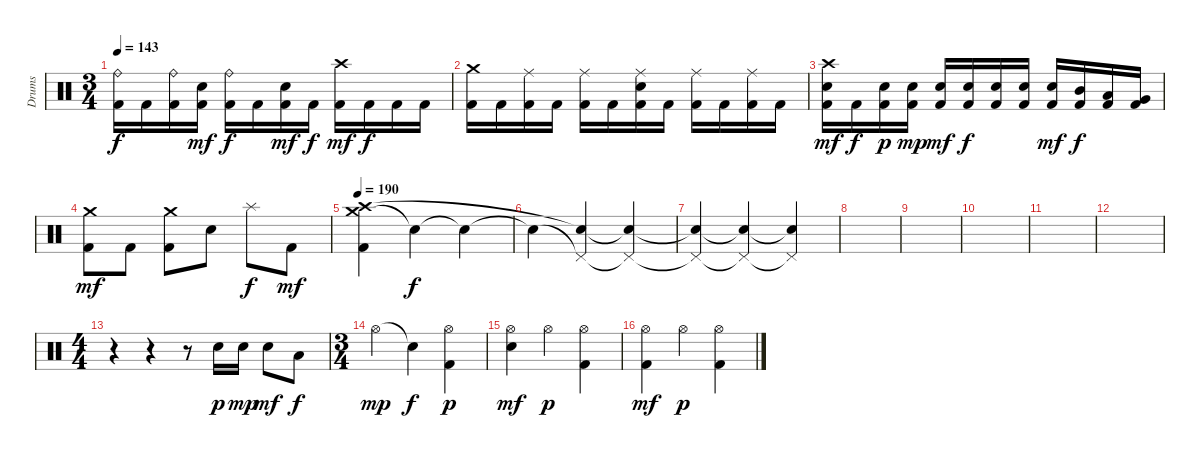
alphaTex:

\track ("Drums" "Drums") {instrument percussion}
\staff {score}
\articulation defaults
\ts (3 4)
\tempo 143
\clef neutral
\ks c
("Ride (bell)" "Kick (hit) 2").16{dy f} "Kick (hit) 2".16 ("Ride (bell)" "Kick (hit) 2").16 ("Electric Snare (hit)" "Kick (hit) 2").16{dy mf} ("Ride (bell)" "Kick (hit) 2").16{dy f} "Kick (hit) 2".16 ("Electric Snare (hit)" "Kick (hit) 2").16{dy mf} "Kick (hit) 2".16{dy f} ("Crash high (hit)" "Kick (hit) 2").16{dy mf} "Kick (hit) 2".16{dy f} "Kick (hit) 2".16 "Kick (hit) 2".16 |
("Crash medium (hit)" "Kick (hit) 2").16 "Kick (hit) 2".16 ("Ride (middle)" "Kick (hit) 2").16 "Kick (hit) 2".16 ("Ride (middle)" "Kick (hit) 2").16 "Kick (hit) 2".16 ("Ride (middle)" "Electric Snare (hit)" "Kick (hit) 2").16 "Kick (hit) 2".16 ("Ride (middle)" "Kick (hit) 2").16 "Kick (hit) 2".16 ("Ride (middle)" "Kick (hit) 2").16 "Kick (hit) 2".16 |
("Crash high (hit)" "Electric Snare (hit)" "Kick (hit) 2").16{dy mf} "Kick (hit) 2".16{dy f} ("Electric Snare (hit)" "Kick (hit) 2").16{dy p} ("Electric Snare (hit)" "Kick (hit) 2").16{dy mp} ("Electric Snare (hit)" "Kick (hit) 2").16{dy mf} ("Electric Snare (hit)" "Kick (hit) 2").16{dy f} ("Electric Snare (hit)" "Kick (hit) 2").16 ("Electric Snare (hit)" "Kick (hit) 2").16 ("Electric Snare (hit)" "Kick (hit) 2").16{dy mf} ("Mid Tom (hit)" "Kick (hit) 2").16{dy f} ("Low Tom (hit)" "Kick (hit) 2").16 ("Very Low Tom (hit)" "Kick (hit) 2").16 |
("Crash medium (hit)" "Kick (hit) 2").8{dy mf} "Kick (hit) 2".8 ("Crash medium (hit)" "Kick (hit) 2").8 "Electric Snare (hit)".8 "Splash (hit)".8{dy f} "Kick (hit) 2".8{dy mf} |
\tempo 190
("Crash medium (hit)" "Crash high (hit)" "Kick (hit) 2").4 "Snare (hit)"{t}.4{dy f} "Snare (hit)"{t}.4 |
"Snare (hit)"{t}.4 ("Pedal Hi-Hat (hit)"{t} "Snare (hit)"{t}).4 ("Pedal Hi-Hat (hit)"{t} "Snare (hit)"{t}).4 |
("Pedal Hi-Hat (hit)"{t} "Snare (hit)"{t}).4 ("Pedal Hi-Hat (hit)"{t} "Snare (hit)"{t}).4 ("Pedal Hi-Hat (hit)"{t} "Snare (hit)"{t}).4 |
|
|
|
|
|
\ts (4 4)
r.4 r.4 r.8 "Electric Snare (hit)".16{dy p} "Electric Snare (hit)".16{dy mp} "Electric Snare (hit)".8{dy mf} "Low Floor Tom (hit)".8{dy f} |
\ts (3 4)
"Hi-Hat (open)".4{dy mp} "Snare (hit)"{t}.4{dy f} ("Hi-Hat (open)" "Kick (hit) 2").4{dy p} |
("Hi-Hat (open)" "Electric Snare (hit)").4{dy mf} "Hi-Hat (open)".4{dy p} ("Hi-Hat (open)" "Kick (hit) 2").4 |
("Hi-Hat (open)" "Kick (hit) 2").4{dy mf} "Hi-Hat (open)".4{dy p} ("Hi-Hat (open)" "Kick (hit) 2").4
